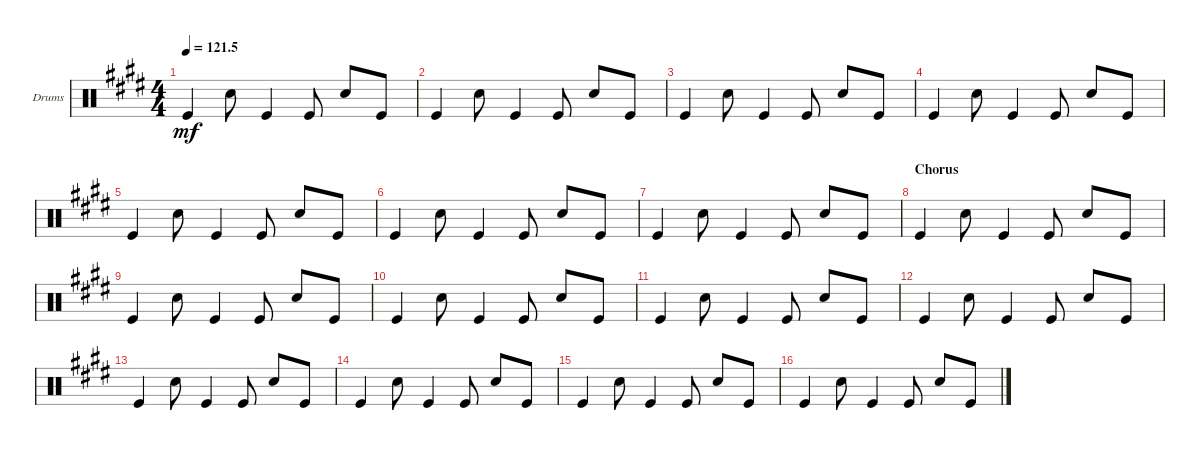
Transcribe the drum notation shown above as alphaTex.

\defaultSystemsLayout 4
\bracketExtendMode groupsimilarinstruments
\firstSystemTrackNameOrientation horizontal
\otherSystemsTrackNameOrientation horizontal
\track ("Drumkit" "Drums") {solo instrument percussion}
\staff {score}
\articulation defaults
\ts (4 4)
\tempo
121.5
\accidentals auto
\clef neutral
\ottava regular
\simile none
\ks e "Kick (hit)".4{dy mf} "Snare (hit) 2".8 "Kick (hit)".4 "Kick (hit)".8 "Snare (hit) 2".8 "Kick (hit)".8
|
"Kick (hit)".4 "Snare (hit) 2".8 "Kick (hit)".4 "Kick (hit)".8 "Snare (hit) 2".8 "Kick (hit)".8 |
"Kick (hit)".4 "Snare (hit) 2".8 "Kick (hit)".4 "Kick (hit)".8 "Snare (hit) 2".8 "Kick (hit)".8 |
"Kick (hit)".4 "Snare (hit) 2".8 "Kick (hit)".4 "Kick (hit)".8 "Snare (hit) 2".8 "Kick (hit)".8 |
"Kick (hit)".4 "Snare (hit) 2".8 "Kick (hit)".4 "Kick (hit)".8 "Snare (hit) 2".8 "Kick (hit)".8 |
"Kick (hit)".4 "Snare (hit) 2".8 "Kick (hit)".4 "Kick (hit)".8 "Snare (hit) 2".8 "Kick (hit)".8 |
"Kick (hit)".4 "Snare (hit) 2".8 "Kick (hit)".4 "Kick (hit)".8 "Snare (hit) 2".8 "Kick (hit)".8 |
\section ("" "Chorus")
"Kick (hit)".4 "Snare (hit) 2".8 "Kick (hit)".4 "Kick (hit)".8 "Snare (hit) 2".8 "Kick (hit)".8 |
"Kick (hit)".4 "Snare (hit) 2".8 "Kick (hit)".4 "Kick (hit)".8 "Snare (hit) 2".8 "Kick (hit)".8 |
"Kick (hit)".4 "Snare (hit) 2".8 "Kick (hit)".4 "Kick (hit)".8 "Snare (hit) 2".8 "Kick (hit)".8 |
"Kick (hit)".4 "Snare (hit) 2".8 "Kick (hit)".4 "Kick (hit)".8 "Snare (hit) 2".8 "Kick (hit)".8 |
"Kick (hit)".4 "Snare (hit) 2".8 "Kick (hit)".4 "Kick (hit)".8 "Snare (hit) 2".8 "Kick (hit)".8 |
"Kick (hit)".4 "Snare (hit) 2".8 "Kick (hit)".4 "Kick (hit)".8 "Snare (hit) 2".8 "Kick (hit)".8 |
"Kick (hit)".4 "Snare (hit) 2".8 "Kick (hit)".4 "Kick (hit)".8 "Snare (hit) 2".8 "Kick (hit)".8 |
"Kick (hit)".4 "Snare (hit) 2".8 "Kick (hit)".4 "Kick (hit)".8 "Snare (hit) 2".8 "Kick (hit)".8 |
"Kick (hit)".4 "Snare (hit) 2".8 "Kick (hit)".4 "Kick (hit)".8 "Snare (hit) 2".8 "Kick (hit)".8
